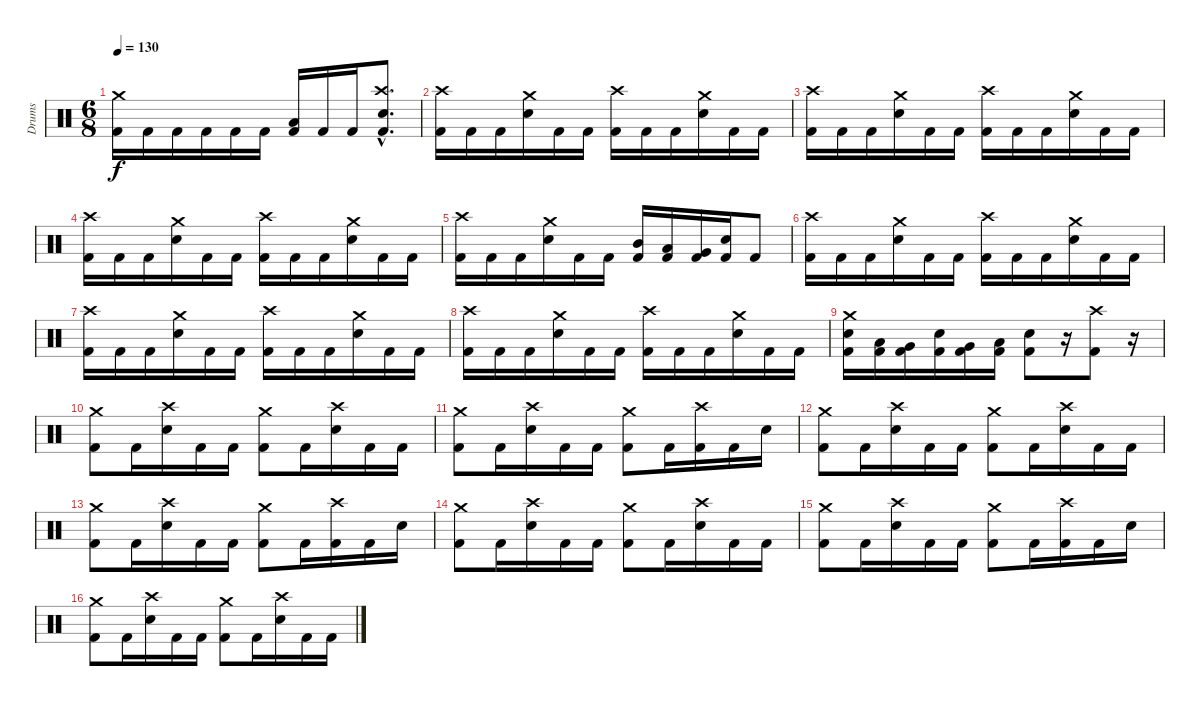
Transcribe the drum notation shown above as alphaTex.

\track ("Drums" "Drums") {instrument percussion}
\staff {score}
\articulation defaults
\ts (6 8)
\tempo 130
\clef neutral
\ks c
("Crash medium (hit)" "Kick (hit) 2").16{dy f} "Kick (hit) 2".16 "Kick (hit) 2".16 "Kick (hit) 2".16 "Kick (hit) 2".16 "Kick (hit) 2".16 ("Low Floor Tom (hit)" "Kick (hit) 2").16 "Kick (hit) 2".16 "Kick (hit) 2".16 ("Crash high (hit)"{hac} "Electric Snare (hit)"{hac} "Kick (hit) 2"{hac}).8{d} |
\section ("" "")
("Crash high (hit)" "Kick (hit) 2").16 "Kick (hit) 2".16 "Kick (hit) 2".16 ("Crash medium (hit)" "Electric Snare (hit)").16 "Kick (hit) 2".16 "Kick (hit) 2".16 ("Crash high (hit)" "Kick (hit) 2").16 "Kick (hit) 2".16 "Kick (hit) 2".16 ("Crash medium (hit)" "Electric Snare (hit)").16 "Kick (hit) 2".16 "Kick (hit) 2".16 |
("Crash high (hit)" "Kick (hit) 2").16 "Kick (hit) 2".16 "Kick (hit) 2".16 ("Crash medium (hit)" "Electric Snare (hit)").16 "Kick (hit) 2".16 "Kick (hit) 2".16 ("Crash high (hit)" "Kick (hit) 2").16 "Kick (hit) 2".16 "Kick (hit) 2".16 ("Crash medium (hit)" "Electric Snare (hit)").16 "Kick (hit) 2".16 "Kick (hit) 2".16 |
("Crash high (hit)" "Kick (hit) 2").16 "Kick (hit) 2".16 "Kick (hit) 2".16 ("Crash medium (hit)" "Electric Snare (hit)").16 "Kick (hit) 2".16 "Kick (hit) 2".16 ("Crash high (hit)" "Kick (hit) 2").16 "Kick (hit) 2".16 "Kick (hit) 2".16 ("Crash medium (hit)" "Electric Snare (hit)").16 "Kick (hit) 2".16 "Kick (hit) 2".16 |
("Crash high (hit)" "Kick (hit) 2").16 "Kick (hit) 2".16 "Kick (hit) 2".16 ("Crash medium (hit)" "Electric Snare (hit)").16 "Kick (hit) 2".16 "Kick (hit) 2".16 ("Mid Tom (hit)" "Kick (hit) 2").16 ("Low Tom (hit)" "Kick (hit) 2").16 ("Very Low Tom (hit)" "Kick (hit) 2").16 ("Electric Snare (hit)" "Kick (hit) 2").16 "Kick (hit) 2".8 |
("Crash high (hit)" "Kick (hit) 2").16 "Kick (hit) 2".16 "Kick (hit) 2".16 ("Crash medium (hit)" "Electric Snare (hit)").16 "Kick (hit) 2".16 "Kick (hit) 2".16 ("Crash high (hit)" "Kick (hit) 2").16 "Kick (hit) 2".16 "Kick (hit) 2".16 ("Crash medium (hit)" "Electric Snare (hit)").16 "Kick (hit) 2".16 "Kick (hit) 2".16 |
("Crash high (hit)" "Kick (hit) 2").16 "Kick (hit) 2".16 "Kick (hit) 2".16 ("Crash medium (hit)" "Electric Snare (hit)").16 "Kick (hit) 2".16 "Kick (hit) 2".16 ("Crash high (hit)" "Kick (hit) 2").16 "Kick (hit) 2".16 "Kick (hit) 2".16 ("Crash medium (hit)" "Electric Snare (hit)").16 "Kick (hit) 2".16 "Kick (hit) 2".16 |
("Crash high (hit)" "Kick (hit) 2").16 "Kick (hit) 2".16 "Kick (hit) 2".16 ("Crash medium (hit)" "Electric Snare (hit)").16 "Kick (hit) 2".16 "Kick (hit) 2".16 ("Crash high (hit)" "Kick (hit) 2").16 "Kick (hit) 2".16 "Kick (hit) 2".16 ("Crash medium (hit)" "Electric Snare (hit)").16 "Kick (hit) 2".16 "Kick (hit) 2".16 |
("Crash medium (hit)" "Electric Snare (hit)" "Kick (hit) 2").16 ("Low Tom (hit)" "Kick (hit) 2").16 ("Very Low Tom (hit)" "Kick (hit) 2").16 ("Electric Snare (hit)" "Kick (hit) 2").16 ("Very Low Tom (hit)" "Kick (hit) 2").16 ("Low Floor Tom (hit)" "Kick (hit) 2").16 ("Electric Snare (hit)" "Kick (hit) 2").8 r.16 ("Crash high (hit)" "Kick (hit) 2").8 r.16 |
\section ("" "")
("Crash medium (hit)" "Kick (hit) 2").8 "Kick (hit) 2".16 ("Crash high (hit)" "Electric Snare (hit)").16 "Kick (hit) 2".16 "Kick (hit) 2".16 ("Crash medium (hit)" "Kick (hit) 2").8 "Kick (hit) 2".16 ("Crash high (hit)" "Electric Snare (hit)").16 "Kick (hit) 2".16 "Kick (hit) 2".16 |
("Crash medium (hit)" "Kick (hit) 2").8 "Kick (hit) 2".16 ("Crash high (hit)" "Electric Snare (hit)").16 "Kick (hit) 2".16 "Kick (hit) 2".16 ("Crash medium (hit)" "Kick (hit) 2").8 "Kick (hit) 2".16 ("Crash high (hit)" "Kick (hit) 2").16 "Kick (hit) 2".16 "Electric Snare (hit)".16 |
("Crash medium (hit)" "Kick (hit) 2").8 "Kick (hit) 2".16 ("Crash high (hit)" "Electric Snare (hit)").16 "Kick (hit) 2".16 "Kick (hit) 2".16 ("Crash medium (hit)" "Kick (hit) 2").8 "Kick (hit) 2".16 ("Crash high (hit)" "Electric Snare (hit)").16 "Kick (hit) 2".16 "Kick (hit) 2".16 |
("Crash medium (hit)" "Kick (hit) 2").8 "Kick (hit) 2".16 ("Crash high (hit)" "Electric Snare (hit)").16 "Kick (hit) 2".16 "Kick (hit) 2".16 ("Crash medium (hit)" "Kick (hit) 2").8 "Kick (hit) 2".16 ("Crash high (hit)" "Kick (hit) 2").16 "Kick (hit) 2".16 "Electric Snare (hit)".16 |
\section ("" "")
("Crash medium (hit)" "Kick (hit) 2").8 "Kick (hit) 2".16 ("Crash high (hit)" "Electric Snare (hit)").16 "Kick (hit) 2".16 "Kick (hit) 2".16 ("Crash medium (hit)" "Kick (hit) 2").8 "Kick (hit) 2".16 ("Crash high (hit)" "Electric Snare (hit)").16 "Kick (hit) 2".16 "Kick (hit) 2".16 |
("Crash medium (hit)" "Kick (hit) 2").8 "Kick (hit) 2".16 ("Crash high (hit)" "Electric Snare (hit)").16 "Kick (hit) 2".16 "Kick (hit) 2".16 ("Crash medium (hit)" "Kick (hit) 2").8 "Kick (hit) 2".16 ("Crash high (hit)" "Kick (hit) 2").16 "Kick (hit) 2".16 "Electric Snare (hit)".16 |
("Crash medium (hit)" "Kick (hit) 2").8 "Kick (hit) 2".16 ("Crash high (hit)" "Electric Snare (hit)").16 "Kick (hit) 2".16 "Kick (hit) 2".16 ("Crash medium (hit)" "Kick (hit) 2").8 "Kick (hit) 2".16 ("Crash high (hit)" "Electric Snare (hit)").16 "Kick (hit) 2".16 "Kick (hit) 2".16
